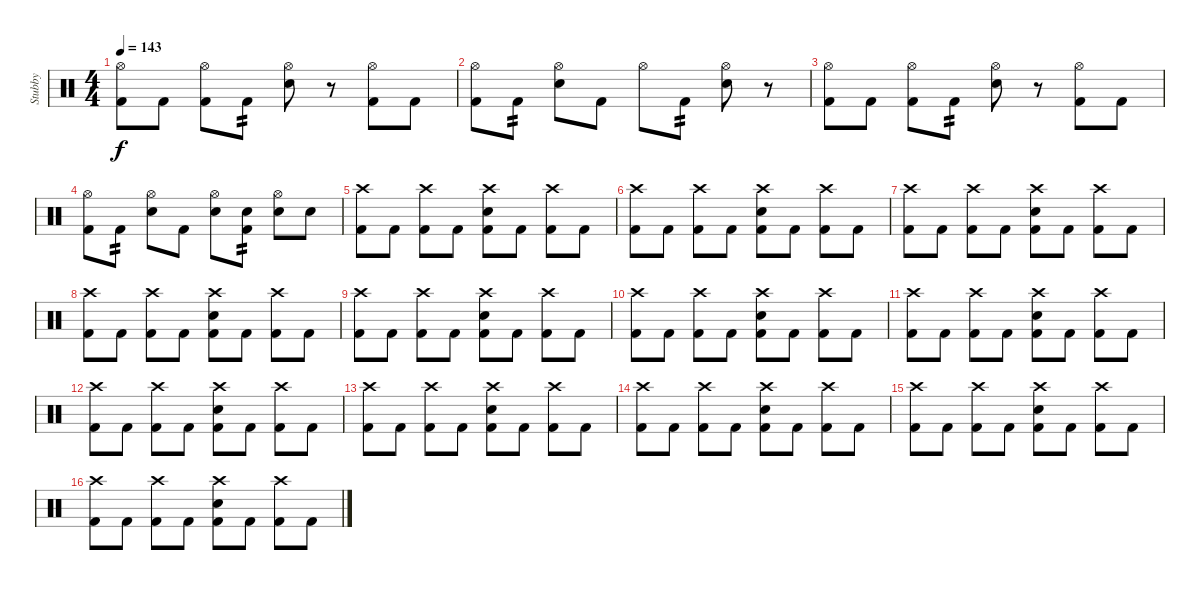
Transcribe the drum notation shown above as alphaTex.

\track ("Stubby" "Stubby") {instrument percussion}
\staff {score}
\articulation defaults
\ts (4 4)
\tempo 143
\clef neutral
\ks c
("Hi-Hat (open)" "Kick (hit) 2").8{dy f} "Kick (hit) 2".8 ("Hi-Hat (open)" "Kick (hit) 2").8 "Kick (hit) 2".8{tp 2} ("Hi-Hat (open)" "Electric Snare (hit)").8 r.8 ("Hi-Hat (open)" "Kick (hit) 2").8 "Kick (hit) 2".8 |
("Hi-Hat (open)" "Kick (hit) 2").8 "Kick (hit) 2".8{tp 2} ("Hi-Hat (open)" "Electric Snare (hit)").8 "Kick (hit) 2".8 "Hi-Hat (open)".8 "Kick (hit) 2".8{tp 2} ("Hi-Hat (open)" "Electric Snare (hit)").8 r.8 |
("Hi-Hat (open)" "Kick (hit) 2").8 "Kick (hit) 2".8 ("Hi-Hat (open)" "Kick (hit) 2").8 "Kick (hit) 2".8{tp 2} ("Hi-Hat (open)" "Electric Snare (hit)").8 r.8 ("Hi-Hat (open)" "Kick (hit) 2").8 "Kick (hit) 2".8 |
("Hi-Hat (open)" "Kick (hit) 2").8 "Kick (hit) 2".8{tp 2} ("Hi-Hat (open)" "Electric Snare (hit)").8 "Kick (hit) 2".8 ("Hi-Hat (open)" "Electric Snare (hit)").8 ("Electric Snare (hit)" "Kick (hit) 2").8{tp 2} ("Hi-Hat (open)" "Electric Snare (hit)").8 "Electric Snare (hit)".8 |
("Crash high (hit)" "Kick (hit) 2").8 "Kick (hit) 2".8 ("Crash high (hit)" "Kick (hit) 2").8 "Kick (hit) 2".8 ("Crash high (hit)" "Electric Snare (hit)" "Kick (hit) 2").8 "Kick (hit) 2".8 ("Crash high (hit)" "Kick (hit) 2").8 "Kick (hit) 2".8 |
("Crash high (hit)" "Kick (hit) 2").8 "Kick (hit) 2".8 ("Crash high (hit)" "Kick (hit) 2").8 "Kick (hit) 2".8 ("Crash high (hit)" "Electric Snare (hit)" "Kick (hit) 2").8 "Kick (hit) 2".8 ("Crash high (hit)" "Kick (hit) 2").8 "Kick (hit) 2".8 |
("Crash high (hit)" "Kick (hit) 2").8 "Kick (hit) 2".8 ("Crash high (hit)" "Kick (hit) 2").8 "Kick (hit) 2".8 ("Crash high (hit)" "Electric Snare (hit)" "Kick (hit) 2").8 "Kick (hit) 2".8 ("Crash high (hit)" "Kick (hit) 2").8 "Kick (hit) 2".8 |
("Crash high (hit)" "Kick (hit) 2").8 "Kick (hit) 2".8 ("Crash high (hit)" "Kick (hit) 2").8 "Kick (hit) 2".8 ("Crash high (hit)" "Electric Snare (hit)" "Kick (hit) 2").8 "Kick (hit) 2".8 ("Crash high (hit)" "Kick (hit) 2").8 "Kick (hit) 2".8 |
("Crash high (hit)" "Kick (hit) 2").8 "Kick (hit) 2".8 ("Crash high (hit)" "Kick (hit) 2").8 "Kick (hit) 2".8 ("Crash high (hit)" "Electric Snare (hit)" "Kick (hit) 2").8 "Kick (hit) 2".8 ("Crash high (hit)" "Kick (hit) 2").8 "Kick (hit) 2".8 |
("Crash high (hit)" "Kick (hit) 2").8 "Kick (hit) 2".8 ("Crash high (hit)" "Kick (hit) 2").8 "Kick (hit) 2".8 ("Crash high (hit)" "Electric Snare (hit)" "Kick (hit) 2").8 "Kick (hit) 2".8 ("Crash high (hit)" "Kick (hit) 2").8 "Kick (hit) 2".8 |
("Crash high (hit)" "Kick (hit) 2").8 "Kick (hit) 2".8 ("Crash high (hit)" "Kick (hit) 2").8 "Kick (hit) 2".8 ("Crash high (hit)" "Electric Snare (hit)" "Kick (hit) 2").8 "Kick (hit) 2".8 ("Crash high (hit)" "Kick (hit) 2").8 "Kick (hit) 2".8 |
("Crash high (hit)" "Kick (hit) 2").8 "Kick (hit) 2".8 ("Crash high (hit)" "Kick (hit) 2").8 "Kick (hit) 2".8 ("Crash high (hit)" "Electric Snare (hit)" "Kick (hit) 2").8 "Kick (hit) 2".8 ("Crash high (hit)" "Kick (hit) 2").8 "Kick (hit) 2".8 |
("Crash high (hit)" "Kick (hit) 2").8 "Kick (hit) 2".8 ("Crash high (hit)" "Kick (hit) 2").8 "Kick (hit) 2".8 ("Crash high (hit)" "Electric Snare (hit)" "Kick (hit) 2").8 "Kick (hit) 2".8 ("Crash high (hit)" "Kick (hit) 2").8 "Kick (hit) 2".8 |
("Crash high (hit)" "Kick (hit) 2").8 "Kick (hit) 2".8 ("Crash high (hit)" "Kick (hit) 2").8 "Kick (hit) 2".8 ("Crash high (hit)" "Electric Snare (hit)" "Kick (hit) 2").8 "Kick (hit) 2".8 ("Crash high (hit)" "Kick (hit) 2").8 "Kick (hit) 2".8 |
("Crash high (hit)" "Kick (hit) 2").8 "Kick (hit) 2".8 ("Crash high (hit)" "Kick (hit) 2").8 "Kick (hit) 2".8 ("Crash high (hit)" "Electric Snare (hit)" "Kick (hit) 2").8 "Kick (hit) 2".8 ("Crash high (hit)" "Kick (hit) 2").8 "Kick (hit) 2".8 |
("Crash high (hit)" "Kick (hit) 2").8 "Kick (hit) 2".8 ("Crash high (hit)" "Kick (hit) 2").8 "Kick (hit) 2".8 ("Crash high (hit)" "Electric Snare (hit)" "Kick (hit) 2").8 "Kick (hit) 2".8 ("Crash high (hit)" "Kick (hit) 2").8 "Kick (hit) 2".8
